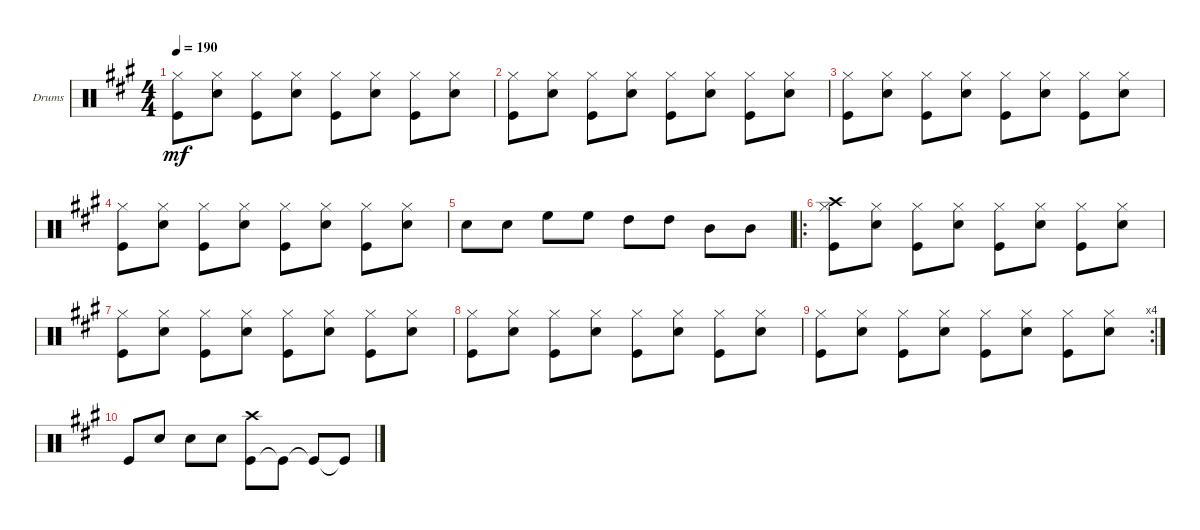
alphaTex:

\defaultSystemsLayout 4
\bracketExtendMode groupsimilarinstruments
\firstSystemTrackNameOrientation horizontal
\otherSystemsTrackNameOrientation horizontal
\track ("Drumkit" "Drums") {instrument percussion}
\staff {score}
\articulation defaults
\ts (4 4)
\tempo 190
\clef neutral
\ks f#minor
("Kick (hit)" "Hi-Hat (closed)").8{dy mf} ("Snare (hit) 2" "Hi-Hat (closed)").8 ("Kick (hit)" "Hi-Hat (closed)").8 ("Snare (hit) 2" "Hi-Hat (closed)").8 ("Kick (hit)" "Hi-Hat (closed)").8 ("Snare (hit) 2" "Hi-Hat (closed)").8 ("Kick (hit)" "Hi-Hat (closed)").8 ("Snare (hit) 2" "Hi-Hat (closed)").8 |
("Kick (hit)" "Hi-Hat (closed)").8 ("Snare (hit) 2" "Hi-Hat (closed)").8 ("Kick (hit)" "Hi-Hat (closed)").8 ("Snare (hit) 2" "Hi-Hat (closed)").8 ("Kick (hit)" "Hi-Hat (closed)").8 ("Snare (hit) 2" "Hi-Hat (closed)").8 ("Kick (hit)" "Hi-Hat (closed)").8 ("Snare (hit) 2" "Hi-Hat (closed)").8 |
("Kick (hit)" "Hi-Hat (closed)").8 ("Snare (hit) 2" "Hi-Hat (closed)").8 ("Kick (hit)" "Hi-Hat (closed)").8 ("Snare (hit) 2" "Hi-Hat (closed)").8 ("Kick (hit)" "Hi-Hat (closed)").8 ("Snare (hit) 2" "Hi-Hat (closed)").8 ("Kick (hit)" "Hi-Hat (closed)").8 ("Snare (hit) 2" "Hi-Hat (closed)").8 |
("Kick (hit)" "Hi-Hat (closed)").8 ("Snare (hit) 2" "Hi-Hat (closed)").8 ("Kick (hit)" "Hi-Hat (closed)").8 ("Snare (hit) 2" "Hi-Hat (closed)").8 ("Kick (hit)" "Hi-Hat (closed)").8 ("Snare (hit) 2" "Hi-Hat (closed)").8 ("Kick (hit)" "Hi-Hat (closed)").8 ("Snare (hit) 2" "Hi-Hat (closed)").8 |
"Snare (hit) 2".8 "Snare (hit) 2".8 "High Floor Tom (hit)".8 "High Floor Tom (hit)".8 "High Tom (hit)".8 "High Tom (hit)".8 "Mid Tom (hit)".8 "Mid Tom (hit)".8 |
\ro
("Kick (hit)" "Hi-Hat (closed)" "Crash high (hit)").8 ("Snare (hit) 2" "Hi-Hat (closed)").8 ("Kick (hit)" "Hi-Hat (closed)").8 ("Snare (hit) 2" "Hi-Hat (closed)").8 ("Kick (hit)" "Hi-Hat (closed)").8 ("Snare (hit) 2" "Hi-Hat (closed)").8 ("Kick (hit)" "Hi-Hat (closed)").8 ("Snare (hit) 2" "Hi-Hat (closed)").8 |
("Kick (hit)" "Hi-Hat (closed)").8 ("Snare (hit) 2" "Hi-Hat (closed)").8 ("Kick (hit)" "Hi-Hat (closed)").8 ("Snare (hit) 2" "Hi-Hat (closed)").8 ("Kick (hit)" "Hi-Hat (closed)").8 ("Snare (hit) 2" "Hi-Hat (closed)").8 ("Kick (hit)" "Hi-Hat (closed)").8 ("Snare (hit) 2" "Hi-Hat (closed)").8 |
("Kick (hit)" "Hi-Hat (closed)").8 ("Snare (hit) 2" "Hi-Hat (closed)").8 ("Kick (hit)" "Hi-Hat (closed)").8 ("Snare (hit) 2" "Hi-Hat (closed)").8 ("Kick (hit)" "Hi-Hat (closed)").8 ("Snare (hit) 2" "Hi-Hat (closed)").8 ("Kick (hit)" "Hi-Hat (closed)").8 ("Snare (hit) 2" "Hi-Hat (closed)").8 |
\rc 4
("Kick (hit)" "Hi-Hat (closed)").8 ("Snare (hit) 2" "Hi-Hat (closed)").8 ("Kick (hit)" "Hi-Hat (closed)").8 ("Snare (hit) 2" "Hi-Hat (closed)").8 ("Kick (hit)" "Hi-Hat (closed)").8 ("Snare (hit) 2" "Hi-Hat (closed)").8 ("Kick (hit)" "Hi-Hat (closed)").8 ("Snare (hit) 2" "Hi-Hat (closed)").8 |
"Kick (hit)".8 "Snare (hit) 2".8 "Snare (hit) 2".8 "Snare (hit) 2".8 ("Kick (hit)" "Crash high (hit)").8 "Kick (hit)"{t}.8 "Kick (hit)"{t}.8 "Kick (hit)"{t}.8
